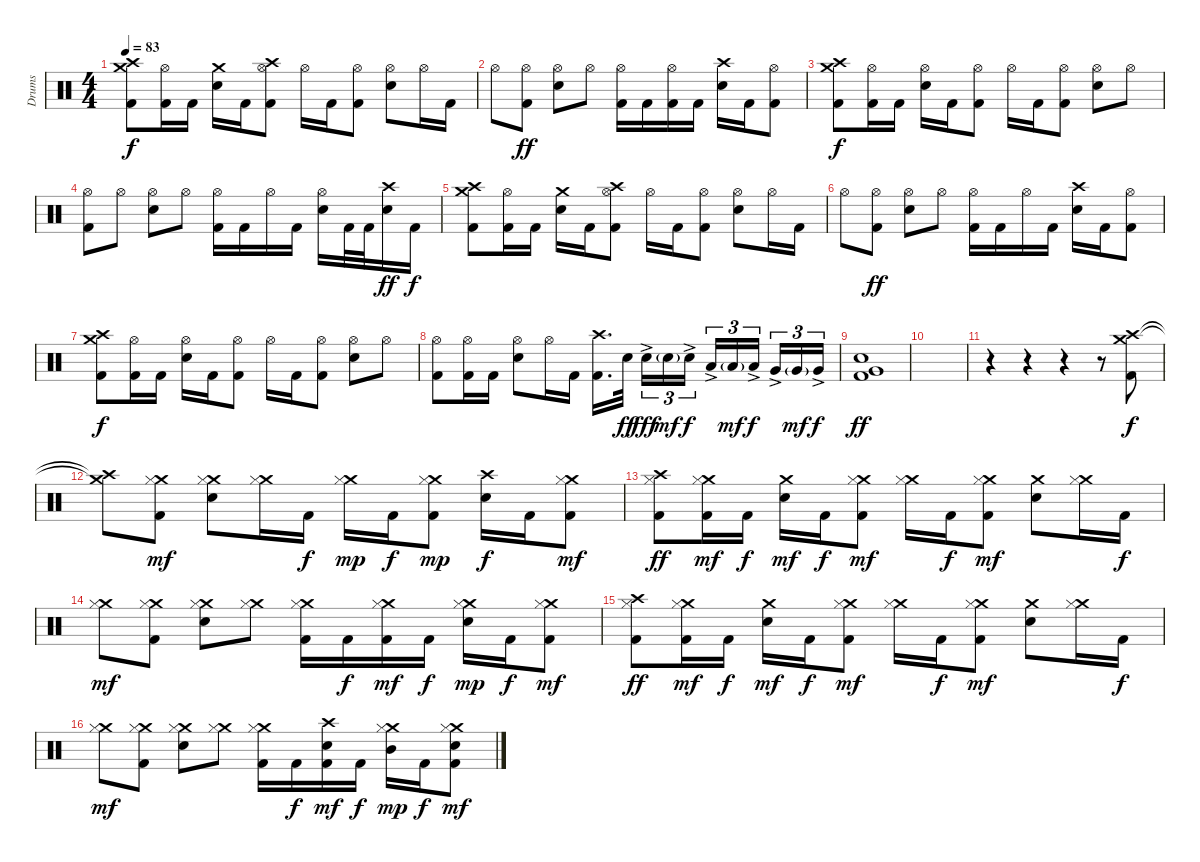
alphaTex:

\track ("Drums" "Drums") {instrument percussion}
\staff {score}
\articulation defaults
\ts (4 4)
\tempo 83
\clef neutral
\ks c
("Crash high (hit)" "Crash medium (hit)" "Kick (hit) 2").8{dy f} ("Hi-Hat (open)" "Kick (hit) 2").16 "Kick (hit) 2".16 ("Crash medium (hit)" "Electric Snare (hit)").16 "Kick (hit) 2".16 ("Crash high (hit)" "Hi-Hat (open)" "Kick (hit) 2").8 "Hi-Hat (open)".16 "Kick (hit) 2".16 ("Hi-Hat (open)" "Kick (hit) 2").8 ("Hi-Hat (open)" "Electric Snare (hit)").8 "Hi-Hat (open)".16 "Kick (hit) 2".16 |
"Hi-Hat (open)".8 ("Hi-Hat (open)" "Kick (hit) 2").8{dy ff} ("Hi-Hat (open)" "Electric Snare (hit)").8 "Hi-Hat (open)".8 ("Hi-Hat (open)" "Kick (hit) 2").16 "Kick (hit) 2".16 ("Hi-Hat (open)" "Kick (hit) 2").16 "Kick (hit) 2".16 ("Crash high (hit)" "Electric Snare (hit)").16 "Kick (hit) 2".16 ("Hi-Hat (open)" "Kick (hit) 2").8 |
("Crash high (hit)" "Crash medium (hit)" "Kick (hit) 2").8{dy f} ("Hi-Hat (open)" "Kick (hit) 2").16 "Kick (hit) 2".16 ("Hi-Hat (open)" "Electric Snare (hit)").16 "Kick (hit) 2".16 ("Hi-Hat (open)" "Kick (hit) 2").8 "Hi-Hat (open)".16 "Kick (hit) 2".16 ("Hi-Hat (open)" "Kick (hit) 2").8 ("Hi-Hat (open)" "Electric Snare (hit)").8 "Hi-Hat (open)".8 |
("Hi-Hat (open)" "Kick (hit) 2").8 "Hi-Hat (open)".8 ("Hi-Hat (open)" "Electric Snare (hit)").8 "Hi-Hat (open)".8 ("Hi-Hat (open)" "Kick (hit) 2").16 "Kick (hit) 2".16 "Hi-Hat (open)".16 "Kick (hit) 2".16 ("Hi-Hat (open)" "Electric Snare (hit)").16 "Kick (hit) 2".32 "Kick (hit) 2".32 ("Crash high (hit)" "Electric Snare (hit)").16{dy ff} "Kick (hit) 2".16{dy f} |
("Crash high (hit)" "Crash medium (hit)" "Kick (hit) 2").8 ("Hi-Hat (open)" "Kick (hit) 2").16 "Kick (hit) 2".16 ("Crash medium (hit)" "Electric Snare (hit)").16 "Kick (hit) 2".16 ("Crash high (hit)" "Hi-Hat (open)" "Kick (hit) 2").8 "Hi-Hat (open)".16 "Kick (hit) 2".16 ("Hi-Hat (open)" "Kick (hit) 2").8 ("Hi-Hat (open)" "Electric Snare (hit)").8 "Hi-Hat (open)".16 "Kick (hit) 2".16 |
"Hi-Hat (open)".8 ("Hi-Hat (open)" "Kick (hit) 2").8{dy ff} ("Hi-Hat (open)" "Electric Snare (hit)").8 "Hi-Hat (open)".8 ("Hi-Hat (open)" "Kick (hit) 2").16 "Kick (hit) 2".16 "Hi-Hat (open)".16 "Kick (hit) 2".16 ("Crash high (hit)" "Electric Snare (hit)").16 "Kick (hit) 2".16 ("Hi-Hat (open)" "Kick (hit) 2").8 |
("Crash high (hit)" "Crash medium (hit)" "Kick (hit) 2").8{dy f} ("Hi-Hat (open)" "Kick (hit) 2").16 "Kick (hit) 2".16 ("Hi-Hat (open)" "Electric Snare (hit)").16 "Kick (hit) 2".16 ("Hi-Hat (open)" "Kick (hit) 2").8 "Hi-Hat (open)".16 "Kick (hit) 2".16 ("Hi-Hat (open)" "Kick (hit) 2").8 ("Hi-Hat (open)" "Electric Snare (hit)").8 "Hi-Hat (open)".8 |
("Hi-Hat (open)" "Kick (hit) 2").8 ("Hi-Hat (open)" "Kick (hit) 2").16 "Kick (hit) 2".16 ("Hi-Hat (open)" "Electric Snare (hit)").8 "Hi-Hat (open)".16 "Kick (hit) 2".16 ("Crash high (hit)" "Kick (hit) 2").16{d} "Electric Snare (hit)".32{dy ff beam splitsecondary} "Electric Snare (hit)"{ac}.16{tu (3 2) dy fff} "Electric Snare (hit)"{g}.16{tu (3 2) dy mf} "Electric Snare (hit)"{ac}.16{tu (3 2) dy f} "Low Tom (hit)"{ac}.16{tu (3 2)} "Low Tom (hit)"{g}.16{tu (3 2) dy mf} "Low Tom (hit)"{ac}.16{tu (3 2) dy f beam splitsecondary} "Very Low Tom (hit)"{ac}.16{tu (3 2)} "Very Low Tom (hit)"{g}.16{tu (3 2) dy mf} "Very Low Tom (hit)"{ac}.16{tu (3 2) dy f} |
("Very Low Tom (hit)" "Electric Snare (hit)" "Kick (hit) 2").1{dy ff} |
|
r.4 r.4 r.4 r.8 ("Crash medium (hit)" "Crash high (hit)" "Kick (hit) 2").8{dy f} |
("Crash medium (hit)"{t} "Crash high (hit)"{t}).8 ("Crash medium (hit)" "Hi-Hat (closed)" "Kick (hit) 2").8{dy mf} ("Crash medium (hit)" "Hi-Hat (closed)" "Electric Snare (hit)").8 ("Crash medium (hit)" "Hi-Hat (closed)").16 "Kick (hit) 2".16{dy f} ("Crash medium (hit)" "Hi-Hat (closed)").16{dy mp} "Kick (hit) 2".16{dy f} ("Crash medium (hit)" "Hi-Hat (closed)" "Kick (hit) 2").8{dy mp} ("Crash high (hit)" "Electric Snare (hit)").16{dy f} "Kick (hit) 2".16 ("Crash medium (hit)" "Hi-Hat (closed)" "Kick (hit) 2").8{dy mf} |
("Crash high (hit)" "Hi-Hat (closed)" "Kick (hit) 2").8{dy ff} ("Crash medium (hit)" "Hi-Hat (closed)" "Kick (hit) 2").16{dy mf} "Kick (hit) 2".16{dy f} ("Crash medium (hit)" "Electric Snare (hit)").16{dy mf} "Kick (hit) 2".16{dy f} ("Crash medium (hit)" "Hi-Hat (closed)" "Kick (hit) 2").8{dy mf} ("Crash medium (hit)" "Hi-Hat (closed)").16 "Kick (hit) 2".16{dy f} ("Crash medium (hit)" "Hi-Hat (closed)" "Kick (hit) 2").8{dy mf} ("Crash medium (hit)" "Electric Snare (hit)").8 ("Crash medium (hit)" "Hi-Hat (closed)").16 "Kick (hit) 2".16{dy f} |
("Crash medium (hit)" "Hi-Hat (closed)").8{dy mf} ("Crash medium (hit)" "Hi-Hat (closed)" "Kick (hit) 2").8 ("Crash medium (hit)" "Hi-Hat (closed)" "Electric Snare (hit)").8 ("Crash medium (hit)" "Hi-Hat (closed)").8 ("Crash medium (hit)" "Hi-Hat (closed)" "Kick (hit) 2").16 "Kick (hit) 2".16{dy f} ("Crash medium (hit)" "Hi-Hat (closed)" "Kick (hit) 2").16{dy mf} "Kick (hit) 2".16{dy f} ("Crash medium (hit)" "Hi-Hat (closed)" "Electric Snare (hit)").16{dy mp} "Kick (hit) 2".16{dy f} ("Crash medium (hit)" "Hi-Hat (closed)" "Kick (hit) 2").8{dy mf} |
("Crash high (hit)" "Hi-Hat (closed)" "Kick (hit) 2").8{dy ff} ("Crash medium (hit)" "Hi-Hat (closed)" "Kick (hit) 2").16{dy mf} "Kick (hit) 2".16{dy f} ("Crash medium (hit)" "Electric Snare (hit)").16{dy mf} "Kick (hit) 2".16{dy f} ("Crash medium (hit)" "Hi-Hat (closed)" "Kick (hit) 2").8{dy mf} ("Crash medium (hit)" "Hi-Hat (closed)").16 "Kick (hit) 2".16{dy f} ("Crash medium (hit)" "Hi-Hat (closed)" "Kick (hit) 2").8{dy mf} ("Crash medium (hit)" "Electric Snare (hit)").8 ("Crash medium (hit)" "Hi-Hat (closed)").16 "Kick (hit) 2".16{dy f} |
("Crash medium (hit)" "Hi-Hat (closed)").8{dy mf} ("Crash medium (hit)" "Hi-Hat (closed)" "Kick (hit) 2").8 ("Crash medium (hit)" "Hi-Hat (closed)" "Electric Snare (hit)").8 ("Crash medium (hit)" "Hi-Hat (closed)").8 ("Crash medium (hit)" "Hi-Hat (closed)" "Kick (hit) 2").16 "Kick (hit) 2".16{dy f} ("Crash high (hit)" "Electric Snare (hit)" "Kick (hit) 2").16{dy mf} "Kick (hit) 2".16{dy f} ("Crash medium (hit)" "Hi-Hat (closed)" "Mid Tom (hit)").16{dy mp} "Kick (hit) 2".16{dy f} ("Crash medium (hit)" "Hi-Hat (closed)" "Electric Snare (hit)" "Kick (hit) 2").8{dy mf}
